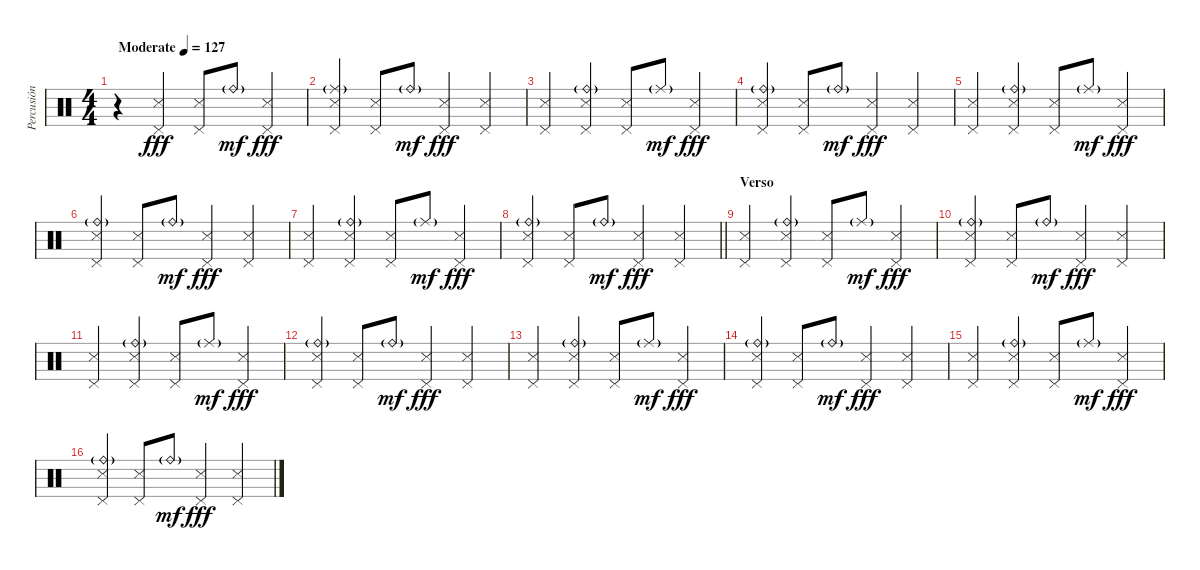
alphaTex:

\track ("Percusión" "Percusión") {instrument percussion}
\staff {score}
\articulation defaults
\ts (4 4)
\tempo (127 "Moderate")
\clef neutral
\ks c
r.4{dy fff} ("Pedal Hi-Hat (hit)" "Snare (side stick) 3").4 ("Pedal Hi-Hat (hit)" "Snare (side stick) 3").8 "Ride (bell)"{g}.8{dy mf} ("Pedal Hi-Hat (hit)" "Snare (side stick) 3").4{dy fff} |
("Ride (middle)"{g} "Pedal Hi-Hat (hit)" "Snare (side stick) 3").4 ("Pedal Hi-Hat (hit)" "Snare (side stick) 3").8 "Ride (bell)"{g}.8{dy mf} ("Pedal Hi-Hat (hit)" "Snare (side stick) 3").4{dy fff} ("Pedal Hi-Hat (hit)" "Snare (side stick) 3").4 |
("Pedal Hi-Hat (hit)" "Snare (side stick) 3").4 ("Ride (bell)"{g} "Pedal Hi-Hat (hit)" "Snare (side stick) 3").4 ("Pedal Hi-Hat (hit)" "Snare (side stick) 3").8 "Ride (middle)"{g}.8{dy mf} ("Pedal Hi-Hat (hit)" "Snare (side stick) 3").4{dy fff} |
("Ride (bell)"{g} "Pedal Hi-Hat (hit)" "Snare (side stick) 3").4 ("Pedal Hi-Hat (hit)" "Snare (side stick) 3").8 "Ride (bell)"{g}.8{dy mf} ("Pedal Hi-Hat (hit)" "Snare (side stick) 3").4{dy fff} ("Pedal Hi-Hat (hit)" "Snare (side stick) 3").4 |
("Pedal Hi-Hat (hit)" "Snare (side stick) 3").4 ("Ride (bell)"{g} "Pedal Hi-Hat (hit)" "Snare (side stick) 3").4 ("Pedal Hi-Hat (hit)" "Snare (side stick) 3").8 "Ride (middle)"{g}.8{dy mf} ("Pedal Hi-Hat (hit)" "Snare (side stick) 3").4{dy fff} |
("Ride (bell)"{g} "Pedal Hi-Hat (hit)" "Snare (side stick) 3").4 ("Pedal Hi-Hat (hit)" "Snare (side stick) 3").8 "Ride (bell)"{g}.8{dy mf} ("Pedal Hi-Hat (hit)" "Snare (side stick) 3").4{dy fff} ("Pedal Hi-Hat (hit)" "Snare (side stick) 3").4 |
("Pedal Hi-Hat (hit)" "Snare (side stick) 3").4 ("Ride (bell)"{g} "Pedal Hi-Hat (hit)" "Snare (side stick) 3").4 ("Pedal Hi-Hat (hit)" "Snare (side stick) 3").8 "Ride (middle)"{g}.8{dy mf} ("Pedal Hi-Hat (hit)" "Snare (side stick) 3").4{dy fff} |
\barLineRight lightlight
("Ride (bell)"{g} "Pedal Hi-Hat (hit)" "Snare (side stick) 3").4 ("Pedal Hi-Hat (hit)" "Snare (side stick) 3").8 "Ride (bell)"{g}.8{dy mf} ("Pedal Hi-Hat (hit)" "Snare (side stick) 3").4{dy fff} ("Pedal Hi-Hat (hit)" "Snare (side stick) 3").4 |
\section ("" "Verso")
("Pedal Hi-Hat (hit)" "Snare (side stick) 3").4 ("Ride (bell)"{g} "Pedal Hi-Hat (hit)" "Snare (side stick) 3").4 ("Pedal Hi-Hat (hit)" "Snare (side stick) 3").8 "Ride (middle)"{g}.8{dy mf} ("Pedal Hi-Hat (hit)" "Snare (side stick) 3").4{dy fff} |
("Ride (bell)"{g} "Pedal Hi-Hat (hit)" "Snare (side stick) 3").4 ("Pedal Hi-Hat (hit)" "Snare (side stick) 3").8 "Ride (bell)"{g}.8{dy mf} ("Pedal Hi-Hat (hit)" "Snare (side stick) 3").4{dy fff} ("Pedal Hi-Hat (hit)" "Snare (side stick) 3").4 |
("Pedal Hi-Hat (hit)" "Snare (side stick) 3").4 ("Ride (bell)"{g} "Pedal Hi-Hat (hit)" "Snare (side stick) 3").4 ("Pedal Hi-Hat (hit)" "Snare (side stick) 3").8 "Ride (middle)"{g}.8{dy mf} ("Pedal Hi-Hat (hit)" "Snare (side stick) 3").4{dy fff} |
("Ride (bell)"{g} "Pedal Hi-Hat (hit)" "Snare (side stick) 3").4 ("Pedal Hi-Hat (hit)" "Snare (side stick) 3").8 "Ride (bell)"{g}.8{dy mf} ("Pedal Hi-Hat (hit)" "Snare (side stick) 3").4{dy fff} ("Pedal Hi-Hat (hit)" "Snare (side stick) 3").4 |
("Pedal Hi-Hat (hit)" "Snare (side stick) 3").4 ("Ride (bell)"{g} "Pedal Hi-Hat (hit)" "Snare (side stick) 3").4 ("Pedal Hi-Hat (hit)" "Snare (side stick) 3").8 "Ride (middle)"{g}.8{dy mf} ("Pedal Hi-Hat (hit)" "Snare (side stick) 3").4{dy fff} |
("Ride (bell)"{g} "Pedal Hi-Hat (hit)" "Snare (side stick) 3").4 ("Pedal Hi-Hat (hit)" "Snare (side stick) 3").8 "Ride (bell)"{g}.8{dy mf} ("Pedal Hi-Hat (hit)" "Snare (side stick) 3").4{dy fff} ("Pedal Hi-Hat (hit)" "Snare (side stick) 3").4 |
("Pedal Hi-Hat (hit)" "Snare (side stick) 3").4 ("Ride (bell)"{g} "Pedal Hi-Hat (hit)" "Snare (side stick) 3").4 ("Pedal Hi-Hat (hit)" "Snare (side stick) 3").8 "Ride (middle)"{g}.8{dy mf} ("Pedal Hi-Hat (hit)" "Snare (side stick) 3").4{dy fff} |
("Ride (bell)"{g} "Pedal Hi-Hat (hit)" "Snare (side stick) 3").4 ("Pedal Hi-Hat (hit)" "Snare (side stick) 3").8 "Ride (bell)"{g}.8{dy mf} ("Pedal Hi-Hat (hit)" "Snare (side stick) 3").4{dy fff} ("Pedal Hi-Hat (hit)" "Snare (side stick) 3").4
